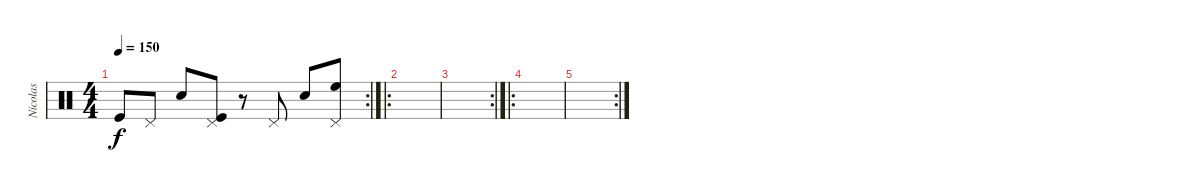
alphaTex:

\track ("Nicolas" "Nicolas") {instrument percussion}
\staff {score}
\articulation defaults
\rc 2
\ts (4 4)
\tempo 150
\clef neutral
\ks c "Kick (hit)".8{dy f} "Pedal Hi-Hat (hit)".8 "Electric Snare (hit)".8
("Pedal Hi-Hat (hit)" "Kick (hit)").8 r.8 "Pedal Hi-Hat (hit)".8 "Electric Snare (hit)".8 ("Pedal Hi-Hat (hit)" "High Floor Tom (hit)").8 |
\ro
|
\rc 2
|
\ro
|
\rc 2
